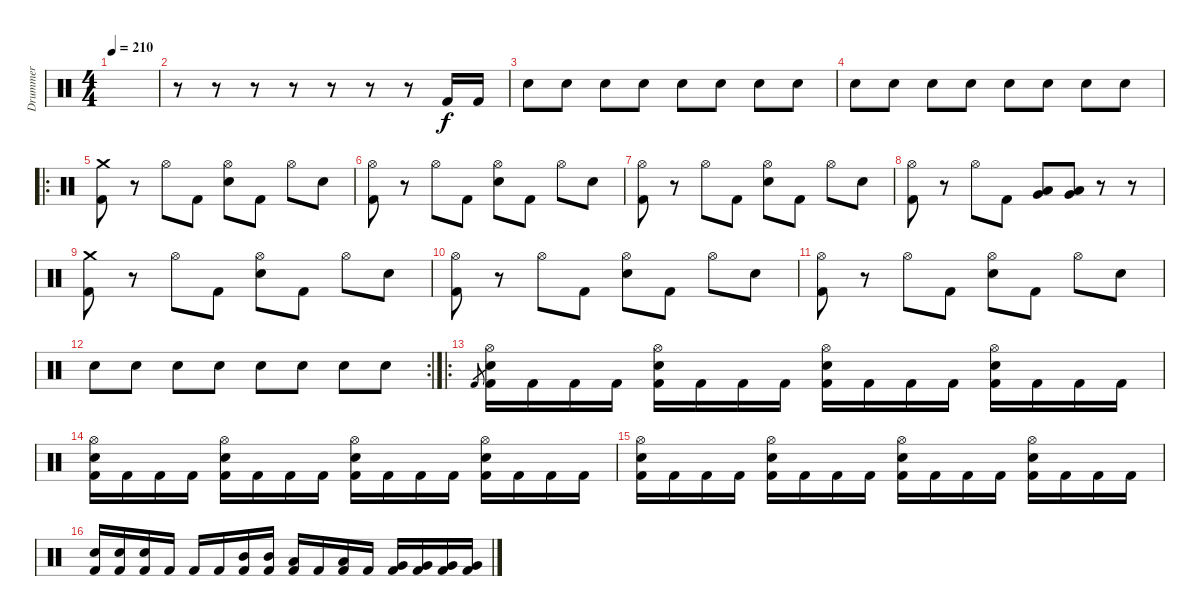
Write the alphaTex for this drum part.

\track ("Drummer" "Drummer") {instrument percussion}
\staff {score}
\articulation defaults
\ts (4 4)
\tempo 210
\clef neutral
\ks c
|
r.8 r.8 r.8 r.8 r.8 r.8 r.8 "Kick (hit) 2".16 "Kick (hit) 2".16 |
"Electric Snare (hit)".8 "Electric Snare (hit)".8 "Electric Snare (hit)".8 "Electric Snare (hit)".8 "Electric Snare (hit)".8 "Electric Snare (hit)".8 "Electric Snare (hit)".8 "Electric Snare (hit)".8 |
"Electric Snare (hit)".8 "Electric Snare (hit)".8 "Electric Snare (hit)".8 "Electric Snare (hit)".8 "Electric Snare (hit)".8 "Electric Snare (hit)".8 "Electric Snare (hit)".8 "Electric Snare (hit)".8 |
\ro
("Crash medium (hit)" "Kick (hit) 2").8 r.8 "Hi-Hat (open)".8 "Kick (hit) 2".8 ("Hi-Hat (open)" "Electric Snare (hit)").8 "Kick (hit) 2".8 "Hi-Hat (open)".8 "Electric Snare (hit)".8 |
("Hi-Hat (open)" "Kick (hit) 2").8 r.8 "Hi-Hat (open)".8 "Kick (hit) 2".8 ("Hi-Hat (open)" "Electric Snare (hit)").8 "Kick (hit) 2".8 "Hi-Hat (open)".8 "Electric Snare (hit)".8 |
("Hi-Hat (open)" "Kick (hit) 2").8 r.8 "Hi-Hat (open)".8 "Kick (hit) 2".8 ("Hi-Hat (open)" "Electric Snare (hit)").8 "Kick (hit) 2".8 "Hi-Hat (open)".8 "Electric Snare (hit)".8 |
("Hi-Hat (open)" "Kick (hit) 2").8 r.8 "Hi-Hat (open)".8 "Kick (hit) 2".8 ("Low Tom (hit)" "Very Low Tom (hit)").8 ("Low Tom (hit)" "Very Low Tom (hit)").8 r.8 r.8 |
("Crash medium (hit)" "Kick (hit) 2").8 r.8 "Hi-Hat (open)".8 "Kick (hit) 2".8 ("Hi-Hat (open)" "Electric Snare (hit)").8 "Kick (hit) 2".8 "Hi-Hat (open)".8 "Electric Snare (hit)".8 |
("Hi-Hat (open)" "Kick (hit) 2").8 r.8 "Hi-Hat (open)".8 "Kick (hit) 2".8 ("Hi-Hat (open)" "Electric Snare (hit)").8 "Kick (hit) 2".8 "Hi-Hat (open)".8 "Electric Snare (hit)".8 |
("Hi-Hat (open)" "Kick (hit) 2").8 r.8 "Hi-Hat (open)".8 "Kick (hit) 2".8 ("Hi-Hat (open)" "Electric Snare (hit)").8 "Kick (hit) 2".8 "Hi-Hat (open)".8 "Electric Snare (hit)".8 |
\rc 2 "Electric Snare (hit)".8 "Electric Snare (hit)".8 "Electric Snare (hit)".8 "Electric Snare (hit)".8 "Electric Snare (hit)".8 "Electric Snare (hit)".8 "Electric Snare (hit)".8 "Electric Snare (hit)".8
|
\ro "Kick (hit) 2".8{gr}
("Hi-Hat (open)" "Electric Snare (hit)" "Kick (hit) 2").16 "Kick (hit) 2".16 "Kick (hit) 2".16 "Kick (hit) 2".16 ("Hi-Hat (open)" "Electric Snare (hit)" "Kick (hit) 2").16 "Kick (hit) 2".16 "Kick (hit) 2".16 "Kick (hit) 2".16 ("Hi-Hat (open)" "Electric Snare (hit)" "Kick (hit) 2").16 "Kick (hit) 2".16 "Kick (hit) 2".16 "Kick (hit) 2".16 ("Hi-Hat (open)" "Electric Snare (hit)" "Kick (hit) 2").16 "Kick (hit) 2".16 "Kick (hit) 2".16 "Kick (hit) 2".16 |
("Hi-Hat (open)" "Electric Snare (hit)" "Kick (hit) 2").16 "Kick (hit) 2".16 "Kick (hit) 2".16 "Kick (hit) 2".16 ("Hi-Hat (open)" "Electric Snare (hit)" "Kick (hit) 2").16 "Kick (hit) 2".16 "Kick (hit) 2".16 "Kick (hit) 2".16 ("Hi-Hat (open)" "Electric Snare (hit)" "Kick (hit) 2").16 "Kick (hit) 2".16 "Kick (hit) 2".16 "Kick (hit) 2".16 ("Hi-Hat (open)" "Electric Snare (hit)" "Kick (hit) 2").16 "Kick (hit) 2".16 "Kick (hit) 2".16 "Kick (hit) 2".16 |
("Hi-Hat (open)" "Electric Snare (hit)" "Kick (hit) 2").16 "Kick (hit) 2".16 "Kick (hit) 2".16 "Kick (hit) 2".16 ("Hi-Hat (open)" "Electric Snare (hit)" "Kick (hit) 2").16 "Kick (hit) 2".16 "Kick (hit) 2".16 "Kick (hit) 2".16 ("Hi-Hat (open)" "Electric Snare (hit)" "Kick (hit) 2").16 "Kick (hit) 2".16 "Kick (hit) 2".16 "Kick (hit) 2".16 ("Hi-Hat (open)" "Electric Snare (hit)" "Kick (hit) 2").16 "Kick (hit) 2".16 "Kick (hit) 2".16 "Kick (hit) 2".16 |
("Electric Snare (hit)" "Kick (hit) 2").16 ("Electric Snare (hit)" "Kick (hit) 2").16 ("Electric Snare (hit)" "Kick (hit) 2").16 "Kick (hit) 2".16 "Kick (hit) 2".16 "Kick (hit) 2".16 ("Mid Tom (hit)" "Kick (hit) 2").16 ("Mid Tom (hit)" "Kick (hit) 2").16 ("Low Tom (hit)" "Kick (hit) 2").16 "Kick (hit) 2".16 ("Low Tom (hit)" "Kick (hit) 2").16 "Kick (hit) 2".16 ("Very Low Tom (hit)" "Kick (hit) 2").16 ("Very Low Tom (hit)" "Kick (hit) 2").16 ("Very Low Tom (hit)" "Kick (hit) 2").16 ("Very Low Tom (hit)" "Kick (hit) 2").16
